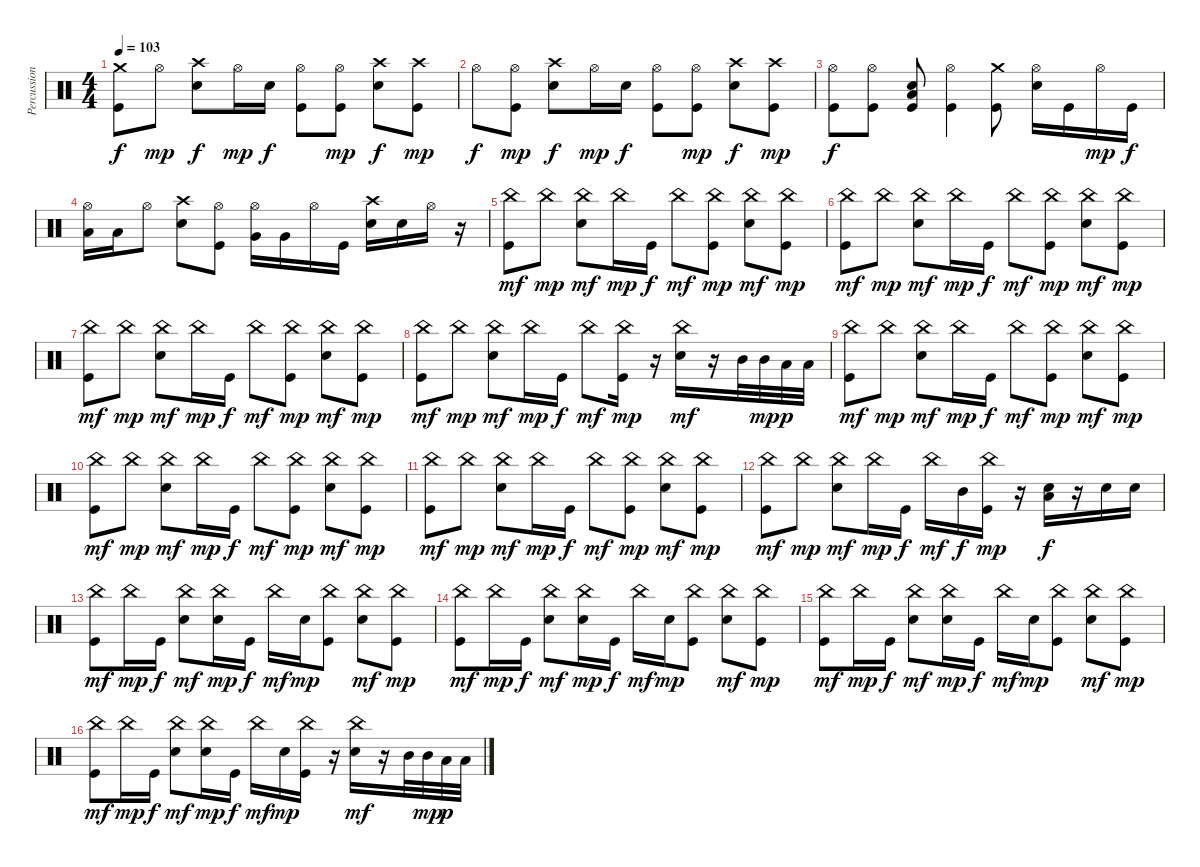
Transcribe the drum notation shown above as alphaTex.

\track ("Percussion" "Percussion") {instrument percussion}
\staff {score}
\articulation defaults
\ts (4 4)
\tempo 103
\clef neutral
\ks c
("Crash medium (hit)" "Kick (hit)").8{dy f} "Hi-Hat (open)".8{dy mp} ("Crash high (hit)" "Electric Snare (hit)").8{dy f} "Hi-Hat (open)".16{dy mp} "Electric Snare (hit)".16{dy f} ("Hi-Hat (open)" "Kick (hit)").8 ("Hi-Hat (open)" "Kick (hit)").8{dy mp} ("Crash high (hit)" "Electric Snare (hit)").8{dy f} ("Crash high (hit)" "Kick (hit)").8{dy mp} |
"Hi-Hat (open)".8{dy f} ("Hi-Hat (open)" "Kick (hit)").8{dy mp} ("Crash high (hit)" "Electric Snare (hit)").8{dy f} "Hi-Hat (open)".16{dy mp} "Electric Snare (hit)".16{dy f} ("Hi-Hat (open)" "Kick (hit)").8 ("Hi-Hat (open)" "Kick (hit)").8{dy mp} ("Crash high (hit)" "Electric Snare (hit)").8{dy f} ("Crash high (hit)" "Kick (hit)").8{dy mp} |
("Hi-Hat (open)" "Kick (hit)").8{dy f} ("Hi-Hat (open)" "Kick (hit)").8 ("Electric Snare (hit)" "Low Floor Tom (hit)" "Kick (hit)").8 ("Hi-Hat (open)" "Kick (hit)").4 ("Crash medium (hit)" "Kick (hit)").8 ("Hi-Hat (open)" "Electric Snare (hit)").16 "Kick (hit)".16 "Hi-Hat (open)".16{dy mp} "Kick (hit)".16{dy f} |
("Hi-Hat (open)" "Low Tom (hit)").16 "Low Tom (hit)".16 "Hi-Hat (open)".8 ("Crash high (hit)" "Electric Snare (hit)").8 ("Hi-Hat (open)" "Kick (hit)").8 ("Hi-Hat (open)" "Very Low Tom (hit)").16 "Very Low Tom (hit)".16 "Hi-Hat (open)".16 "Kick (hit)".16 ("Crash high (hit)" "Electric Snare (hit)").16 "Electric Snare (hit)".16 "Hi-Hat (open)".16 r.16 |
("China (hit)" "Kick (hit)").8{dy mf} "China (hit)".8{dy mp} ("China (hit)" "Electric Snare (hit)").8{dy mf} "China (hit)".16{dy mp} "Kick (hit)".16{dy f} "China (hit)".8{dy mf} ("China (hit)" "Kick (hit)").8{dy mp} ("China (hit)" "Electric Snare (hit)").8{dy mf} ("China (hit)" "Kick (hit)").8{dy mp} |
("China (hit)" "Kick (hit)").8{dy mf} "China (hit)".8{dy mp} ("China (hit)" "Electric Snare (hit)").8{dy mf} "China (hit)".16{dy mp} "Kick (hit)".16{dy f} "China (hit)".8{dy mf} ("China (hit)" "Kick (hit)").8{dy mp} ("China (hit)" "Electric Snare (hit)").8{dy mf} ("China (hit)" "Kick (hit)").8{dy mp} |
("China (hit)" "Kick (hit)").8{dy mf} "China (hit)".8{dy mp} ("China (hit)" "Electric Snare (hit)").8{dy mf} "China (hit)".16{dy mp} "Kick (hit)".16{dy f} "China (hit)".8{dy mf} ("China (hit)" "Kick (hit)").8{dy mp} ("China (hit)" "Electric Snare (hit)").8{dy mf} ("China (hit)" "Kick (hit)").8{dy mp} |
("China (hit)" "Kick (hit)").8{dy mf} "China (hit)".8{dy mp} ("China (hit)" "Electric Snare (hit)").8{dy mf} "China (hit)".16{dy mp} "Kick (hit)".16{dy f} "China (hit)".8{dy mf} ("China (hit)" "Kick (hit)").16{dy mp} r.16 ("China (hit)" "Electric Snare (hit)").16{dy mf} r.16 "Mid Tom (hit)".32 "Mid Tom (hit)".32{dy mp} "Low Tom (hit)".32{dy p} "Low Tom (hit)".32 |
("China (hit)" "Kick (hit)").8{dy mf} "China (hit)".8{dy mp} ("China (hit)" "Electric Snare (hit)").8{dy mf} "China (hit)".16{dy mp} "Kick (hit)".16{dy f} "China (hit)".8{dy mf} ("China (hit)" "Kick (hit)").8{dy mp} ("China (hit)" "Electric Snare (hit)").8{dy mf} ("China (hit)" "Kick (hit)").8{dy mp} |
("China (hit)" "Kick (hit)").8{dy mf} "China (hit)".8{dy mp} ("China (hit)" "Electric Snare (hit)").8{dy mf} "China (hit)".16{dy mp} "Kick (hit)".16{dy f} "China (hit)".8{dy mf} ("China (hit)" "Kick (hit)").8{dy mp} ("China (hit)" "Electric Snare (hit)").8{dy mf} ("China (hit)" "Kick (hit)").8{dy mp} |
("China (hit)" "Kick (hit)").8{dy mf} "China (hit)".8{dy mp} ("China (hit)" "Electric Snare (hit)").8{dy mf} "China (hit)".16{dy mp} "Kick (hit)".16{dy f} "China (hit)".8{dy mf} ("China (hit)" "Kick (hit)").8{dy mp} ("China (hit)" "Electric Snare (hit)").8{dy mf} ("China (hit)" "Kick (hit)").8{dy mp} |
("China (hit)" "Kick (hit)").8{dy mf} "China (hit)".8{dy mp} ("China (hit)" "Electric Snare (hit)").8{dy mf} "China (hit)".16{dy mp} "Kick (hit)".16{dy f} "China (hit)".16{dy mf} "Mid Tom (hit)".16{dy f} ("China (hit)" "Kick (hit)").16{dy mp} r.16 ("Electric Snare (hit)" "Low Floor Tom (hit)").16{dy f} r.16 "Electric Snare (hit)".16 "Electric Snare (hit)".16 |
("China (hit)" "Kick (hit)").8{dy mf} "China (hit)".16{dy mp} "Kick (hit)".16{dy f} ("China (hit)" "Electric Snare (hit)").8{dy mf} ("China (hit)" "Electric Snare (hit)").16{dy mp} "Kick (hit)".16{dy f} "China (hit)".16{dy mf} "Electric Snare (hit)".16{dy mp} ("China (hit)" "Kick (hit)").8 ("China (hit)" "Electric Snare (hit)").8{dy mf} ("China (hit)" "Kick (hit)").8{dy mp} |
("China (hit)" "Kick (hit)").8{dy mf} "China (hit)".16{dy mp} "Kick (hit)".16{dy f} ("China (hit)" "Electric Snare (hit)").8{dy mf} ("China (hit)" "Electric Snare (hit)").16{dy mp} "Kick (hit)".16{dy f} "China (hit)".16{dy mf} "Electric Snare (hit)".16{dy mp} ("China (hit)" "Kick (hit)").8 ("China (hit)" "Electric Snare (hit)").8{dy mf} ("China (hit)" "Kick (hit)").8{dy mp} |
("China (hit)" "Kick (hit)").8{dy mf} "China (hit)".16{dy mp} "Kick (hit)".16{dy f} ("China (hit)" "Electric Snare (hit)").8{dy mf} ("China (hit)" "Electric Snare (hit)").16{dy mp} "Kick (hit)".16{dy f} "China (hit)".16{dy mf} "Electric Snare (hit)".16{dy mp} ("China (hit)" "Kick (hit)").8 ("China (hit)" "Electric Snare (hit)").8{dy mf} ("China (hit)" "Kick (hit)").8{dy mp} |
("China (hit)" "Kick (hit)").8{dy mf} "China (hit)".16{dy mp} "Kick (hit)".16{dy f} ("China (hit)" "Electric Snare (hit)").8{dy mf} ("China (hit)" "Electric Snare (hit)").16{dy mp} "Kick (hit)".16{dy f} "China (hit)".16{dy mf} "Electric Snare (hit)".16{dy mp} ("China (hit)" "Kick (hit)").16 r.16 ("China (hit)" "Electric Snare (hit)").16{dy mf} r.16 "Mid Tom (hit)".32 "Mid Tom (hit)".32{dy mp} "Low Tom (hit)".32{dy p} "Low Tom (hit)".32
